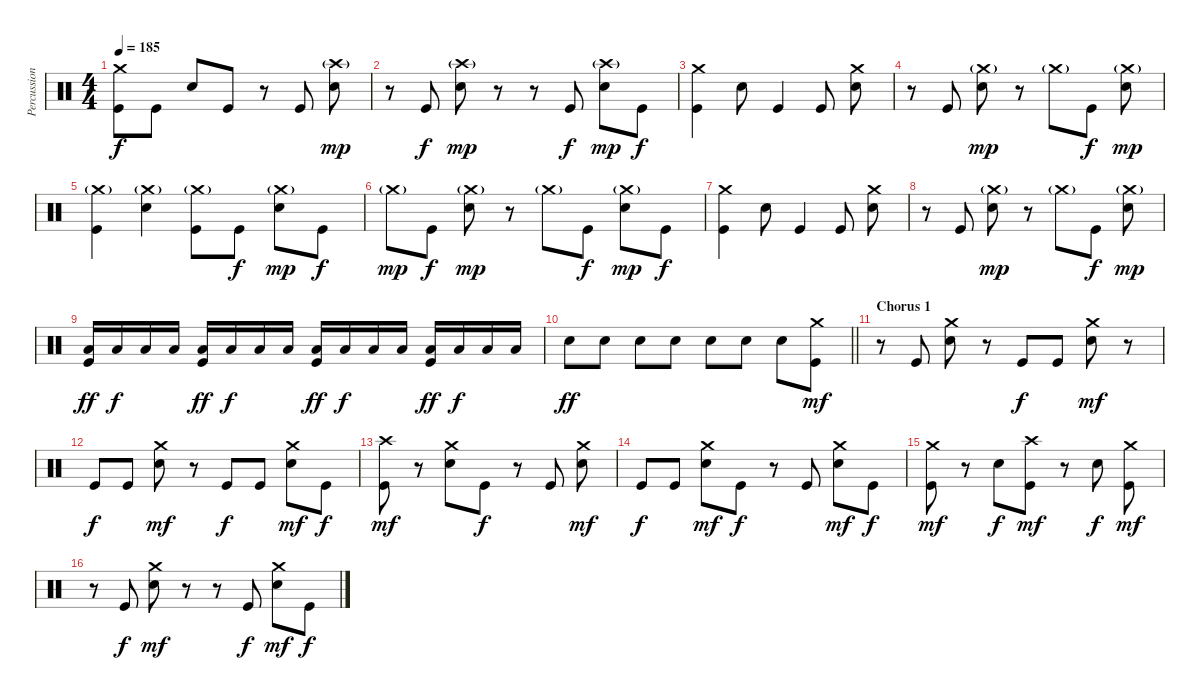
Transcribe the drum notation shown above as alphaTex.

\track ("Percussion" "Percussion") {instrument percussion}
\staff {score}
\articulation defaults
\ts (4 4)
\tempo 185
\clef neutral
\ks c
("Crash medium (hit)" "Kick (hit)").8{dy f} "Kick (hit)".8 "Electric Snare (hit)".8 "Kick (hit)".8 r.8 "Kick (hit)".8 ("Crash high (hit)"{g} "Electric Snare (hit)").8{dy mp} |
r.8 "Kick (hit)".8{dy f} ("Crash high (hit)"{g} "Electric Snare (hit)").8{dy mp} r.8 r.8 "Kick (hit)".8{dy f} ("Crash high (hit)"{g} "Electric Snare (hit)").8{dy mp} "Kick (hit)".8{dy f} |
("Crash medium (hit)" "Kick (hit)").4 "Electric Snare (hit)".8 "Kick (hit)".4 "Kick (hit)".8 ("Crash medium (hit)" "Electric Snare (hit)").8 |
r.8 "Kick (hit)".8 ("Crash medium (hit)"{g} "Electric Snare (hit)").8{dy mp} r.8 "Crash medium (hit)"{g}.8 "Kick (hit)".8{dy f} ("Crash medium (hit)"{g} "Electric Snare (hit)").8{dy mp} |
("Crash medium (hit)"{g} "Kick (hit)").4 ("Crash medium (hit)"{g} "Electric Snare (hit)").4 ("Crash medium (hit)"{g} "Kick (hit)").8 "Kick (hit)".8{dy f} ("Crash medium (hit)"{g} "Electric Snare (hit)").8{dy mp} "Kick (hit)".8{dy f} |
"Crash medium (hit)"{g}.8{dy mp} "Kick (hit)".8{dy f} ("Crash medium (hit)"{g} "Electric Snare (hit)").8{dy mp} r.8 "Crash medium (hit)"{g}.8 "Kick (hit)".8{dy f} ("Crash medium (hit)"{g} "Electric Snare (hit)").8{dy mp} "Kick (hit)".8{dy f} |
("Crash medium (hit)" "Kick (hit)").4 "Electric Snare (hit)".8 "Kick (hit)".4 "Kick (hit)".8 ("Crash medium (hit)" "Electric Snare (hit)").8 |
r.8 "Kick (hit)".8 ("Crash medium (hit)"{g} "Electric Snare (hit)").8{dy mp} r.8 "Crash medium (hit)"{g}.8 "Kick (hit)".8{dy f} ("Crash medium (hit)"{g} "Electric Snare (hit)").8{dy mp} |
("Low Floor Tom (hit)" "Kick (hit)").16{dy ff} "Low Floor Tom (hit)".16{dy f} "Low Floor Tom (hit)".16 "Low Floor Tom (hit)".16 ("Low Floor Tom (hit)" "Kick (hit)").16{dy ff} "Low Floor Tom (hit)".16{dy f} "Low Floor Tom (hit)".16 "Low Floor Tom (hit)".16 ("Low Floor Tom (hit)" "Kick (hit)").16{dy ff} "Low Floor Tom (hit)".16{dy f} "Low Floor Tom (hit)".16 "Low Floor Tom (hit)".16 ("Low Floor Tom (hit)" "Kick (hit)").16{dy ff} "Low Floor Tom (hit)".16{dy f} "Low Floor Tom (hit)".16 "Low Floor Tom (hit)".16{volume 10} |
\barLineRight lightlight "Electric Snare (hit)".8{dy ff volume 13} "Electric Snare (hit)".8 "Electric Snare (hit)".8 "Electric Snare (hit)".8 "Electric Snare (hit)".8 "Electric Snare (hit)".8 "Electric Snare (hit)".8
("Crash medium (hit)" "Kick (hit)").8{dy mf} |
\section ("" "Chorus 1")
r.8{volume 13} "Kick (hit)".8 ("Crash medium (hit)" "Electric Snare (hit)").8 r.8 "Kick (hit)".8{dy f} "Kick (hit)".8 ("Crash medium (hit)" "Electric Snare (hit)").8{dy mf} r.8 |
"Kick (hit)".8{dy f} "Kick (hit)".8 ("Crash medium (hit)" "Electric Snare (hit)").8{dy mf} r.8 "Kick (hit)".8{dy f} "Kick (hit)".8 ("Crash medium (hit)" "Electric Snare (hit)").8{dy mf} "Kick (hit)".8{dy f} |
("Crash high (hit)" "Kick (hit)").8{dy mf} r.8 ("Crash medium (hit)" "Electric Snare (hit)").8 "Kick (hit)".8{dy f} r.8 "Kick (hit)".8 ("Crash medium (hit)" "Electric Snare (hit)").8{dy mf} |
"Kick (hit)".8{dy f} "Kick (hit)".8 ("Crash medium (hit)" "Electric Snare (hit)").8{dy mf} "Kick (hit)".8{dy f} r.8 "Kick (hit)".8 ("Crash medium (hit)" "Electric Snare (hit)").8{dy mf} "Kick (hit)".8{dy f} |
("Crash medium (hit)" "Kick (hit)").8{dy mf} r.8 "Electric Snare (hit)".8{dy f} ("Crash high (hit)" "Kick (hit)").8{dy mf} r.8 "Electric Snare (hit)".8{dy f} ("Crash medium (hit)" "Kick (hit)").8{dy mf} |
r.8 "Kick (hit)".8{dy f} ("Crash medium (hit)" "Electric Snare (hit)").8{dy mf} r.8 r.8 "Kick (hit)".8{dy f} ("Crash medium (hit)" "Electric Snare (hit)").8{dy mf} "Kick (hit)".8{dy f}
